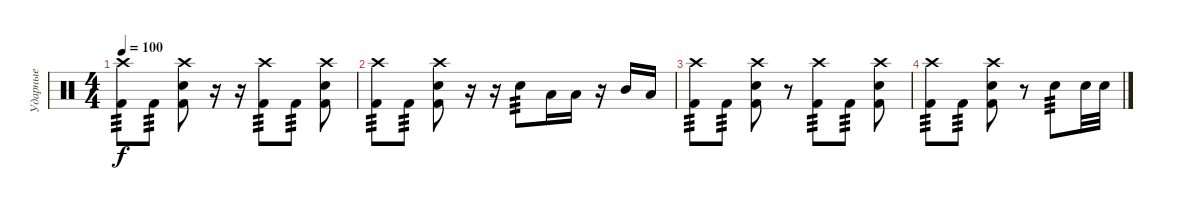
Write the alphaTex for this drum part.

\track ("Ударные" "Ударные") {instrument percussion}
\staff {score}
\articulation defaults
\ts (4 4)
\tempo 100
\clef neutral
\ks c
("Crash high (hit)" "Kick (hit) 2").8{tp 3 dy f} "Kick (hit) 2".8{tp 3} ("Crash high (hit)" "Snare (hit) 2" "Kick (hit) 2").8 r.16 r.16 ("Crash high (hit)" "Kick (hit) 2").8{tp 3} "Kick (hit) 2".8{tp 3} ("Crash high (hit)" "Snare (hit) 2" "Kick (hit) 2").8 |
("Crash high (hit)" "Kick (hit) 2").8{tp 3} "Kick (hit) 2".8{tp 3} ("Crash high (hit)" "Snare (hit) 2" "Kick (hit) 2").8 r.16 r.16 "Snare (hit) 2".8{tp 3} "Low Tom (hit)".16 "Low Tom (hit)".16 r.16 "Mid Tom (hit)".16 "Low Floor Tom (hit)".16 |
("Crash high (hit)" "Kick (hit) 2").8{tp 3} "Kick (hit) 2".8{tp 3} ("Crash high (hit)" "Snare (hit) 2" "Kick (hit) 2").8 r.8 ("Crash high (hit)" "Kick (hit) 2").8{tp 3} "Kick (hit) 2".8{tp 3} ("Crash high (hit)" "Snare (hit) 2" "Kick (hit) 2").8 |
("Crash high (hit)" "Kick (hit) 2").8{tp 3} "Kick (hit) 2".8{tp 3} ("Crash high (hit)" "Snare (hit) 2" "Kick (hit) 2").8 r.8 "Snare (hit) 2".8{tp 3} "Snare (hit) 2".32 "Snare (hit) 2".32
